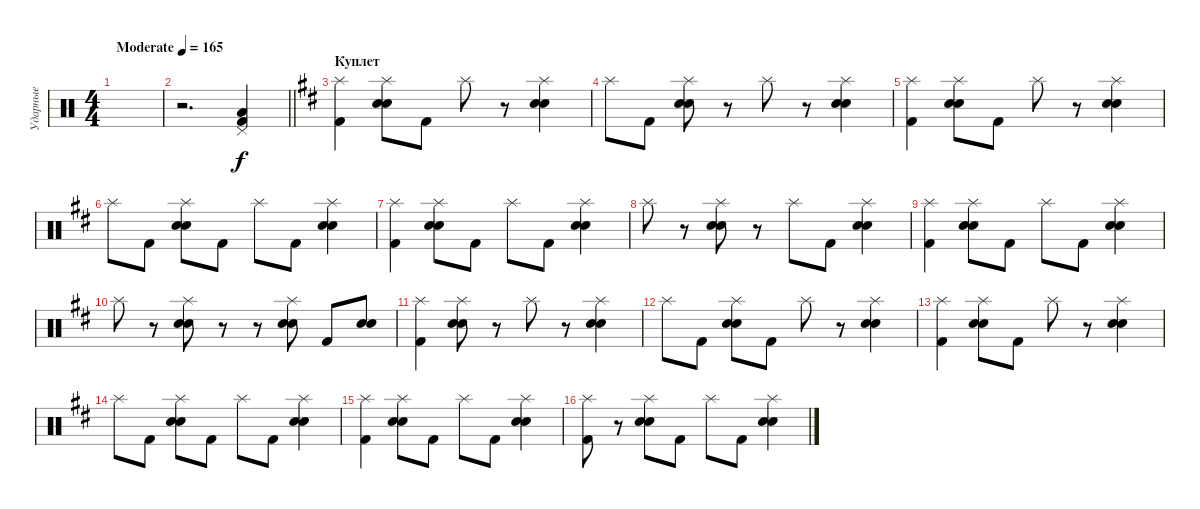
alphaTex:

\track ("Ударные" "Ударные") {instrument percussion}
\staff {score}
\articulation defaults
\ts (4 4)
\tempo (165 "Moderate")
\clef neutral
\ks c
|
\barLineRight lightlight
r.2{d} ("Pedal Hi-Hat (hit)" "Low Tom (hit)" "Kick (hit) 2").4 |
\section ("" "Куплет")
\ks bminor
("Splash (hit)" "Kick (hit) 2").4 ("Splash (hit)" "Electric Snare (hit)" "Snare (hit) 2").8 "Kick (hit) 2".8 "Splash (hit)".8 r.8 ("Splash (hit)" "Electric Snare (hit)" "Snare (hit) 2").4 |
"Splash (hit)".8 "Kick (hit) 2".8 ("Splash (hit)" "Electric Snare (hit)" "Snare (hit) 2").8 r.8 "Splash (hit)".8 r.8 ("Splash (hit)" "Electric Snare (hit)" "Snare (hit) 2").4 |
("Splash (hit)" "Kick (hit) 2").4 ("Splash (hit)" "Electric Snare (hit)" "Snare (hit) 2").8 "Kick (hit) 2".8 "Splash (hit)".8 r.8 ("Splash (hit)" "Electric Snare (hit)" "Snare (hit) 2").4 |
"Splash (hit)".8 "Kick (hit) 2".8 ("Splash (hit)" "Electric Snare (hit)" "Snare (hit) 2").8 "Kick (hit) 2".8 "Splash (hit)".8 "Kick (hit) 2".8 ("Splash (hit)" "Electric Snare (hit)" "Snare (hit) 2").4 |
("Splash (hit)" "Kick (hit) 2").4 ("Splash (hit)" "Electric Snare (hit)" "Snare (hit) 2").8 "Kick (hit) 2".8 "Splash (hit)".8 "Kick (hit) 2".8 ("Splash (hit)" "Electric Snare (hit)" "Snare (hit) 2").4 |
"Splash (hit)".8 r.8 ("Splash (hit)" "Electric Snare (hit)" "Snare (hit) 2").8 r.8 "Splash (hit)".8 "Kick (hit) 2".8 ("Splash (hit)" "Electric Snare (hit)" "Snare (hit) 2").4 |
("Splash (hit)" "Kick (hit) 2").4 ("Splash (hit)" "Electric Snare (hit)" "Snare (hit) 2").8 "Kick (hit) 2".8 "Splash (hit)".8 "Kick (hit) 2".8 ("Splash (hit)" "Electric Snare (hit)" "Snare (hit) 2").4 |
"Splash (hit)".8 r.8 ("Splash (hit)" "Electric Snare (hit)" "Snare (hit) 2").8 r.8 r.8 ("Splash (hit)" "Electric Snare (hit)" "Snare (hit) 2").8 "Kick (hit) 2".8 ("Electric Snare (hit)" "Snare (hit) 2").8 |
("Splash (hit)" "Kick (hit) 2").4 ("Splash (hit)" "Electric Snare (hit)" "Snare (hit) 2").8 r.8 "Splash (hit)".8 r.8 ("Splash (hit)" "Electric Snare (hit)" "Snare (hit) 2").4 |
"Splash (hit)".8 "Kick (hit) 2".8 ("Splash (hit)" "Electric Snare (hit)" "Snare (hit) 2").8 "Kick (hit) 2".8 "Splash (hit)".8 r.8 ("Splash (hit)" "Electric Snare (hit)" "Snare (hit) 2").4 |
("Splash (hit)" "Kick (hit) 2").4 ("Splash (hit)" "Electric Snare (hit)" "Snare (hit) 2").8 "Kick (hit) 2".8 "Splash (hit)".8 r.8 ("Splash (hit)" "Electric Snare (hit)" "Snare (hit) 2").4 |
"Splash (hit)".8 "Kick (hit) 2".8 ("Splash (hit)" "Electric Snare (hit)" "Snare (hit) 2").8 "Kick (hit) 2".8 "Splash (hit)".8 "Kick (hit) 2".8 ("Splash (hit)" "Electric Snare (hit)" "Snare (hit) 2").4 |
("Splash (hit)" "Kick (hit) 2").4 ("Splash (hit)" "Electric Snare (hit)" "Snare (hit) 2").8 "Kick (hit) 2".8 "Splash (hit)".8 "Kick (hit) 2".8 ("Splash (hit)" "Electric Snare (hit)" "Snare (hit) 2").4 |
("Splash (hit)" "Kick (hit) 2").8 r.8 ("Splash (hit)" "Electric Snare (hit)" "Snare (hit) 2").8 "Kick (hit) 2".8 "Splash (hit)".8 "Kick (hit) 2".8 ("Splash (hit)" "Electric Snare (hit)" "Snare (hit) 2").4
